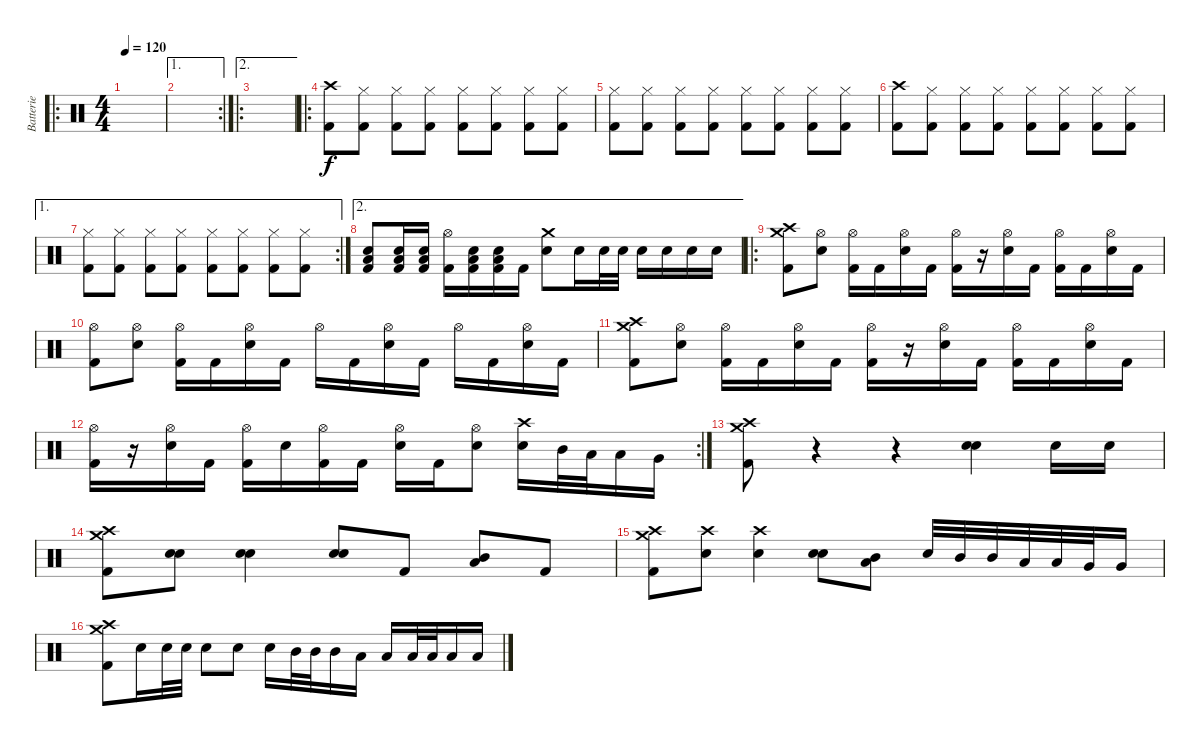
\track ("Batterie" "Batterie") {instrument percussion}
\staff {score}
\articulation defaults
\ro
\ts (4 4)
\tempo 120
\clef neutral
\ks c
|
\ae 1
\rc 2
|
\ae 2
\ro
|
\ro
("Crash high (hit)" "Kick (hit) 2").8 ("Hi-Hat (closed)" "Kick (hit) 2").8 ("Hi-Hat (closed)" "Kick (hit) 2").8 ("Hi-Hat (closed)" "Kick (hit) 2").8 ("Hi-Hat (closed)" "Kick (hit) 2").8 ("Hi-Hat (closed)" "Kick (hit) 2").8 ("Hi-Hat (closed)" "Kick (hit) 2").8 ("Hi-Hat (closed)" "Kick (hit) 2").8 |
("Hi-Hat (closed)" "Kick (hit) 2").8 ("Hi-Hat (closed)" "Kick (hit) 2").8 ("Hi-Hat (closed)" "Kick (hit) 2").8 ("Hi-Hat (closed)" "Kick (hit) 2").8 ("Hi-Hat (closed)" "Kick (hit) 2").8 ("Hi-Hat (closed)" "Kick (hit) 2").8 ("Hi-Hat (closed)" "Kick (hit) 2").8 ("Hi-Hat (closed)" "Kick (hit) 2").8 |
("Crash high (hit)" "Kick (hit) 2").8 ("Hi-Hat (closed)" "Kick (hit) 2").8 ("Hi-Hat (closed)" "Kick (hit) 2").8 ("Hi-Hat (closed)" "Kick (hit) 2").8 ("Hi-Hat (closed)" "Kick (hit) 2").8 ("Hi-Hat (closed)" "Kick (hit) 2").8 ("Hi-Hat (closed)" "Kick (hit) 2").8 ("Hi-Hat (closed)" "Kick (hit) 2").8 |
\ae 1
\rc 2
("Hi-Hat (closed)" "Kick (hit) 2").8 ("Hi-Hat (closed)" "Kick (hit) 2").8 ("Hi-Hat (closed)" "Kick (hit) 2").8 ("Hi-Hat (closed)" "Kick (hit) 2").8 ("Hi-Hat (closed)" "Kick (hit) 2").8 ("Hi-Hat (closed)" "Kick (hit) 2").8 ("Hi-Hat (closed)" "Kick (hit) 2").8 ("Hi-Hat (closed)" "Kick (hit) 2").8 |
\ae 2
("Low Floor Tom (hit)" "Snare (hit) 2" "Kick (hit) 2").8 ("Low Floor Tom (hit)" "Snare (hit) 2" "Kick (hit) 2").16 ("Low Floor Tom (hit)" "Snare (hit) 2" "Kick (hit) 2").16 ("Hi-Hat (open)" "Kick (hit) 2").16 ("Low Floor Tom (hit)" "Snare (hit) 2" "Kick (hit) 2").16 ("Low Floor Tom (hit)" "Snare (hit) 2" "Kick (hit) 2").16 "Kick (hit) 2".16 ("Crash medium (hit)" "Snare (hit) 2").8 "Snare (hit) 2".16 "Snare (hit) 2".32 "Snare (hit) 2".32 "Snare (hit) 2".16 "Snare (hit) 2".16 "Snare (hit) 2".16 "Snare (hit) 2".16 |
\ro
("Crash high (hit)" "Crash medium (hit)" "Kick (hit) 2").8 ("Hi-Hat (open)" "Snare (hit) 2").8 ("Hi-Hat (open)" "Kick (hit) 2").16 "Kick (hit) 2".16 ("Hi-Hat (open)" "Snare (hit) 2").16 "Kick (hit) 2".16 ("Hi-Hat (open)" "Kick (hit) 2").16 r.16 ("Hi-Hat (open)" "Snare (hit) 2").16 "Kick (hit) 2".16 ("Hi-Hat (open)" "Kick (hit) 2").16 "Kick (hit) 2".16 ("Hi-Hat (open)" "Snare (hit) 2").16 "Kick (hit) 2".16 |
("Hi-Hat (open)" "Kick (hit) 2").8 ("Hi-Hat (open)" "Snare (hit) 2").8 ("Hi-Hat (open)" "Kick (hit) 2").16 "Kick (hit) 2".16 ("Hi-Hat (open)" "Snare (hit) 2").16 "Kick (hit) 2".16 "Hi-Hat (open)".16 "Kick (hit) 2".16 ("Hi-Hat (open)" "Snare (hit) 2").16 "Kick (hit) 2".16 "Hi-Hat (open)".16 "Kick (hit) 2".16 ("Hi-Hat (open)" "Snare (hit) 2").16 "Kick (hit) 2".16 |
("Crash high (hit)" "Crash medium (hit)" "Kick (hit) 2").8 ("Hi-Hat (open)" "Snare (hit) 2").8 ("Hi-Hat (open)" "Kick (hit) 2").16 "Kick (hit) 2".16 ("Hi-Hat (open)" "Snare (hit) 2").16 "Kick (hit) 2".16 ("Hi-Hat (open)" "Kick (hit) 2").16 r.16 ("Hi-Hat (open)" "Snare (hit) 2").16 "Kick (hit) 2".16 ("Hi-Hat (open)" "Kick (hit) 2").16 "Kick (hit) 2".16 ("Hi-Hat (open)" "Snare (hit) 2").16 "Kick (hit) 2".16 |
\rc 2
("Hi-Hat (open)" "Kick (hit) 2").16 r.16 ("Hi-Hat (open)" "Snare (hit) 2").16 "Kick (hit) 2".16 ("Hi-Hat (open)" "Kick (hit) 2").16 "Snare (hit) 2".16 ("Hi-Hat (open)" "Kick (hit) 2").16 "Kick (hit) 2".16 ("Hi-Hat (open)" "Snare (hit) 2").16 "Kick (hit) 2".16 ("Hi-Hat (open)" "Snare (hit) 2").8 ("Crash high (hit)" "Snare (hit) 2").16 "Mid Tom (hit)".32 "Low Tom (hit)".32 "Low Tom (hit)".16 "Very Low Tom (hit)".16 |
("Crash high (hit)" "Crash medium (hit)" "Kick (hit) 2").8 r.4 r.4 ("Snare (hit) 2" "Snare (hit) 2").4{bd 120} "Snare (hit) 2".16 "Snare (hit) 2".16 |
("Crash high (hit)" "Crash medium (hit)" "Kick (hit) 2").8 ("Snare (hit) 2" "Snare (hit) 2").8{bd 120} ("Snare (hit) 2" "Snare (hit) 2").4{bd 120} ("Snare (hit) 2" "Snare (hit) 2").8{bd 120} "Kick (hit) 2".8 ("Mid Tom (hit)" "Low Tom (hit)").8{bd 120} "Kick (hit) 2".8 |
("Crash high (hit)" "Crash medium (hit)" "Kick (hit) 2").8 ("Crash high (hit)" "Snare (hit) 2").8 ("Crash high (hit)" "Snare (hit) 2").4 ("Snare (hit) 2" "Snare (hit) 2").8{bd 120} ("Low Tom (hit)" "Mid Tom (hit)").8{bd 120} "Snare (hit) 2".32 "Mid Tom (hit)".32 "Mid Tom (hit)".32 "Low Tom (hit)".32 "Low Tom (hit)".32 "Very Low Tom (hit)".32 "Very Low Tom (hit)".16 |
("Crash high (hit)" "Crash medium (hit)" "Kick (hit) 2").8 "Snare (hit) 2".16 "Snare (hit) 2".32 "Snare (hit) 2".32 "Snare (hit) 2".8 "Snare (hit) 2".8 "Snare (hit) 2".16 "Mid Tom (hit)".32 "Mid Tom (hit)".32 "Mid Tom (hit)".16 "Low Tom (hit)".16 "Low Tom (hit)".16 "Low Tom (hit)".32 "Low Tom (hit)".32 "Low Tom (hit)".16 "Low Floor Tom (hit)".16
